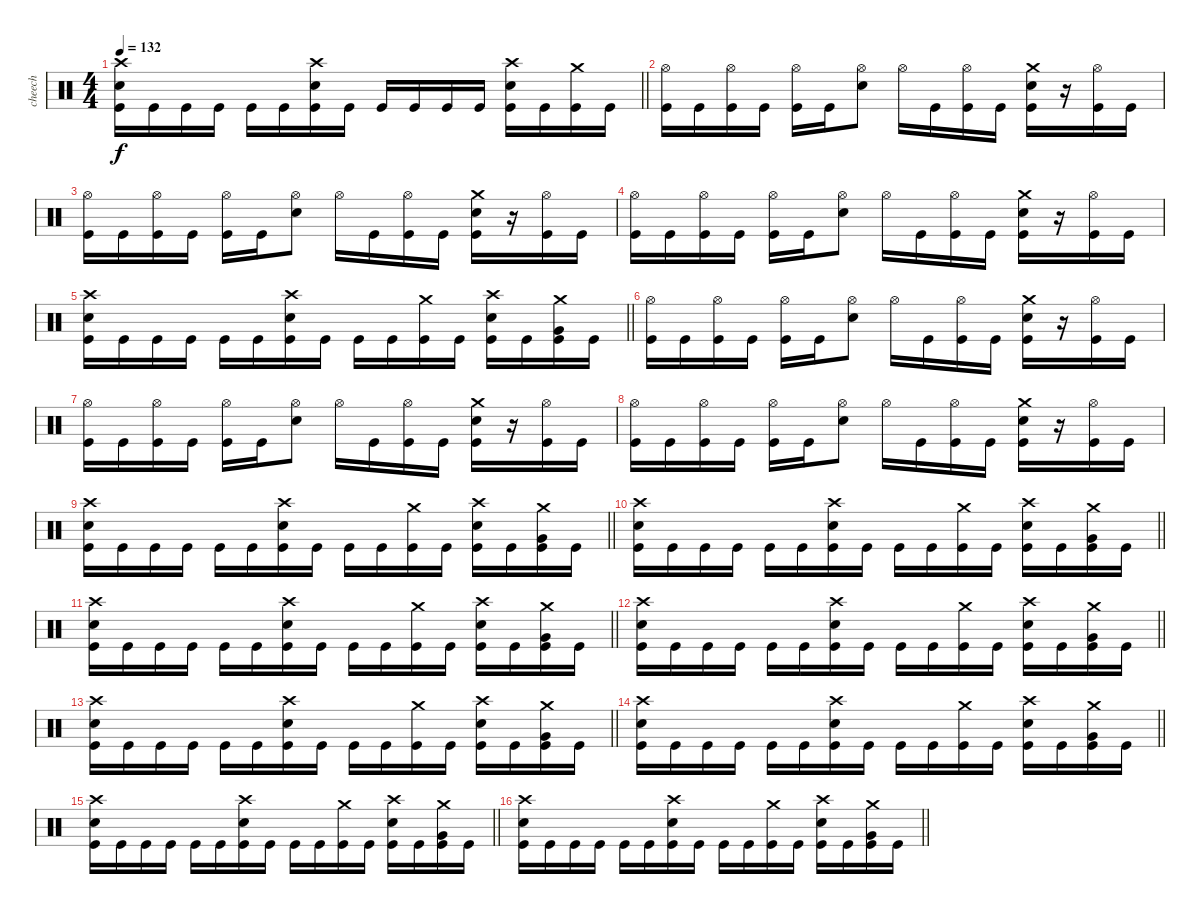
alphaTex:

\track ("cheech" "cheech") {instrument percussion}
\staff {score}
\articulation defaults
\ts (4 4)
\tempo 132
\clef neutral
\barLineRight lightlight
\ks c
("Crash high (hit)" "Electric Snare (hit)" "Kick (hit)").16{dy f} "Kick (hit)".16 "Kick (hit)".16 "Kick (hit)".16 "Kick (hit)".16 "Kick (hit)".16 ("Crash high (hit)" "Electric Snare (hit)" "Kick (hit)").16 "Kick (hit)".16 "Kick (hit)".16 "Kick (hit)".16 "Kick (hit)".16 "Kick (hit)".16 ("Crash high (hit)" "Electric Snare (hit)" "Kick (hit)").16 "Kick (hit)".16 ("Crash medium (hit)" "Kick (hit)").16 "Kick (hit)".16 |
("Hi-Hat (open)" "Kick (hit)").16 "Kick (hit)".16 ("Hi-Hat (open)" "Kick (hit)").16 "Kick (hit)".16 ("Hi-Hat (open)" "Kick (hit)").16 "Kick (hit)".16 ("Hi-Hat (open)" "Electric Snare (hit)").8 "Hi-Hat (open)".16 "Kick (hit)".16 ("Hi-Hat (open)" "Kick (hit)").16 "Kick (hit)".16 ("Crash medium (hit)" "Electric Snare (hit)" "Kick (hit)").16 r.16 ("Hi-Hat (open)" "Kick (hit)").16 "Kick (hit)".16 |
("Hi-Hat (open)" "Kick (hit)").16 "Kick (hit)".16 ("Hi-Hat (open)" "Kick (hit)").16 "Kick (hit)".16 ("Hi-Hat (open)" "Kick (hit)").16 "Kick (hit)".16 ("Hi-Hat (open)" "Electric Snare (hit)").8 "Hi-Hat (open)".16 "Kick (hit)".16 ("Hi-Hat (open)" "Kick (hit)").16 "Kick (hit)".16 ("Crash medium (hit)" "Electric Snare (hit)" "Kick (hit)").16 r.16 ("Hi-Hat (open)" "Kick (hit)").16 "Kick (hit)".16 |
("Hi-Hat (open)" "Kick (hit)").16 "Kick (hit)".16 ("Hi-Hat (open)" "Kick (hit)").16 "Kick (hit)".16 ("Hi-Hat (open)" "Kick (hit)").16 "Kick (hit)".16 ("Hi-Hat (open)" "Electric Snare (hit)").8 "Hi-Hat (open)".16 "Kick (hit)".16 ("Hi-Hat (open)" "Kick (hit)").16 "Kick (hit)".16 ("Crash medium (hit)" "Electric Snare (hit)" "Kick (hit)").16 r.16 ("Hi-Hat (open)" "Kick (hit)").16 "Kick (hit)".16 |
\barLineRight lightlight
("Crash high (hit)" "Electric Snare (hit)" "Kick (hit)").16 "Kick (hit)".16 "Kick (hit)".16 "Kick (hit)".16 "Kick (hit)".16 "Kick (hit)".16 ("Crash high (hit)" "Electric Snare (hit)" "Kick (hit)").16 "Kick (hit)".16 "Kick (hit)".16 "Kick (hit)".16 ("Crash medium (hit)" "Kick (hit)").16 "Kick (hit)".16 ("Crash high (hit)" "Electric Snare (hit)" "Kick (hit)").16 "Kick (hit)".16 ("Crash medium (hit)" "Very Low Tom (hit)" "Kick (hit)").16 "Kick (hit)".16 |
("Hi-Hat (open)" "Kick (hit)").16 "Kick (hit)".16 ("Hi-Hat (open)" "Kick (hit)").16 "Kick (hit)".16 ("Hi-Hat (open)" "Kick (hit)").16 "Kick (hit)".16 ("Hi-Hat (open)" "Electric Snare (hit)").8 "Hi-Hat (open)".16 "Kick (hit)".16 ("Hi-Hat (open)" "Kick (hit)").16 "Kick (hit)".16 ("Crash medium (hit)" "Electric Snare (hit)" "Kick (hit)").16 r.16 ("Hi-Hat (open)" "Kick (hit)").16 "Kick (hit)".16 |
("Hi-Hat (open)" "Kick (hit)").16 "Kick (hit)".16 ("Hi-Hat (open)" "Kick (hit)").16 "Kick (hit)".16 ("Hi-Hat (open)" "Kick (hit)").16 "Kick (hit)".16 ("Hi-Hat (open)" "Electric Snare (hit)").8 "Hi-Hat (open)".16 "Kick (hit)".16 ("Hi-Hat (open)" "Kick (hit)").16 "Kick (hit)".16 ("Crash medium (hit)" "Electric Snare (hit)" "Kick (hit)").16 r.16 ("Hi-Hat (open)" "Kick (hit)").16 "Kick (hit)".16 |
("Hi-Hat (open)" "Kick (hit)").16 "Kick (hit)".16 ("Hi-Hat (open)" "Kick (hit)").16 "Kick (hit)".16 ("Hi-Hat (open)" "Kick (hit)").16 "Kick (hit)".16 ("Hi-Hat (open)" "Electric Snare (hit)").8 "Hi-Hat (open)".16 "Kick (hit)".16 ("Hi-Hat (open)" "Kick (hit)").16 "Kick (hit)".16 ("Crash medium (hit)" "Electric Snare (hit)" "Kick (hit)").16 r.16 ("Hi-Hat (open)" "Kick (hit)").16 "Kick (hit)".16 |
\barLineRight lightlight
("Crash high (hit)" "Electric Snare (hit)" "Kick (hit)").16 "Kick (hit)".16 "Kick (hit)".16 "Kick (hit)".16 "Kick (hit)".16 "Kick (hit)".16 ("Crash high (hit)" "Electric Snare (hit)" "Kick (hit)").16 "Kick (hit)".16 "Kick (hit)".16 "Kick (hit)".16 ("Crash medium (hit)" "Kick (hit)").16 "Kick (hit)".16 ("Crash high (hit)" "Electric Snare (hit)" "Kick (hit)").16 "Kick (hit)".16 ("Crash medium (hit)" "Very Low Tom (hit)" "Kick (hit)").16 "Kick (hit)".16 |
\barLineRight lightlight
("Crash high (hit)" "Electric Snare (hit)" "Kick (hit)").16 "Kick (hit)".16 "Kick (hit)".16 "Kick (hit)".16 "Kick (hit)".16 "Kick (hit)".16 ("Crash high (hit)" "Electric Snare (hit)" "Kick (hit)").16 "Kick (hit)".16 "Kick (hit)".16 "Kick (hit)".16 ("Crash medium (hit)" "Kick (hit)").16 "Kick (hit)".16 ("Crash high (hit)" "Electric Snare (hit)" "Kick (hit)").16 "Kick (hit)".16 ("Crash medium (hit)" "Very Low Tom (hit)" "Kick (hit)").16 "Kick (hit)".16 |
\barLineRight lightlight
("Crash high (hit)" "Electric Snare (hit)" "Kick (hit)").16 "Kick (hit)".16 "Kick (hit)".16 "Kick (hit)".16 "Kick (hit)".16 "Kick (hit)".16 ("Crash high (hit)" "Electric Snare (hit)" "Kick (hit)").16 "Kick (hit)".16 "Kick (hit)".16 "Kick (hit)".16 ("Crash medium (hit)" "Kick (hit)").16 "Kick (hit)".16 ("Crash high (hit)" "Electric Snare (hit)" "Kick (hit)").16 "Kick (hit)".16 ("Crash medium (hit)" "Very Low Tom (hit)" "Kick (hit)").16 "Kick (hit)".16 |
\barLineRight lightlight
("Crash high (hit)" "Electric Snare (hit)" "Kick (hit)").16 "Kick (hit)".16 "Kick (hit)".16 "Kick (hit)".16 "Kick (hit)".16 "Kick (hit)".16 ("Crash high (hit)" "Electric Snare (hit)" "Kick (hit)").16 "Kick (hit)".16 "Kick (hit)".16 "Kick (hit)".16 ("Crash medium (hit)" "Kick (hit)").16 "Kick (hit)".16 ("Crash high (hit)" "Electric Snare (hit)" "Kick (hit)").16 "Kick (hit)".16 ("Crash medium (hit)" "Very Low Tom (hit)" "Kick (hit)").16 "Kick (hit)".16 |
\barLineRight lightlight
("Crash high (hit)" "Electric Snare (hit)" "Kick (hit)").16 "Kick (hit)".16 "Kick (hit)".16 "Kick (hit)".16 "Kick (hit)".16 "Kick (hit)".16 ("Crash high (hit)" "Electric Snare (hit)" "Kick (hit)").16 "Kick (hit)".16 "Kick (hit)".16 "Kick (hit)".16 ("Crash medium (hit)" "Kick (hit)").16 "Kick (hit)".16 ("Crash high (hit)" "Electric Snare (hit)" "Kick (hit)").16 "Kick (hit)".16 ("Crash medium (hit)" "Very Low Tom (hit)" "Kick (hit)").16 "Kick (hit)".16 |
\barLineRight lightlight
("Crash high (hit)" "Electric Snare (hit)" "Kick (hit)").16 "Kick (hit)".16 "Kick (hit)".16 "Kick (hit)".16 "Kick (hit)".16 "Kick (hit)".16 ("Crash high (hit)" "Electric Snare (hit)" "Kick (hit)").16 "Kick (hit)".16 "Kick (hit)".16 "Kick (hit)".16 ("Crash medium (hit)" "Kick (hit)").16 "Kick (hit)".16 ("Crash high (hit)" "Electric Snare (hit)" "Kick (hit)").16 "Kick (hit)".16 ("Crash medium (hit)" "Very Low Tom (hit)" "Kick (hit)").16 "Kick (hit)".16 |
\barLineRight lightlight
("Crash high (hit)" "Electric Snare (hit)" "Kick (hit)").16 "Kick (hit)".16 "Kick (hit)".16 "Kick (hit)".16 "Kick (hit)".16 "Kick (hit)".16 ("Crash high (hit)" "Electric Snare (hit)" "Kick (hit)").16 "Kick (hit)".16 "Kick (hit)".16 "Kick (hit)".16 ("Crash medium (hit)" "Kick (hit)").16 "Kick (hit)".16 ("Crash high (hit)" "Electric Snare (hit)" "Kick (hit)").16 "Kick (hit)".16 ("Crash medium (hit)" "Very Low Tom (hit)" "Kick (hit)").16 "Kick (hit)".16 |
\barLineRight lightlight
("Crash high (hit)" "Electric Snare (hit)" "Kick (hit)").16 "Kick (hit)".16 "Kick (hit)".16 "Kick (hit)".16 "Kick (hit)".16 "Kick (hit)".16 ("Crash high (hit)" "Electric Snare (hit)" "Kick (hit)").16 "Kick (hit)".16 "Kick (hit)".16 "Kick (hit)".16 ("Crash medium (hit)" "Kick (hit)").16 "Kick (hit)".16 ("Crash high (hit)" "Electric Snare (hit)" "Kick (hit)").16 "Kick (hit)".16 ("Crash medium (hit)" "Very Low Tom (hit)" "Kick (hit)").16 "Kick (hit)".16
